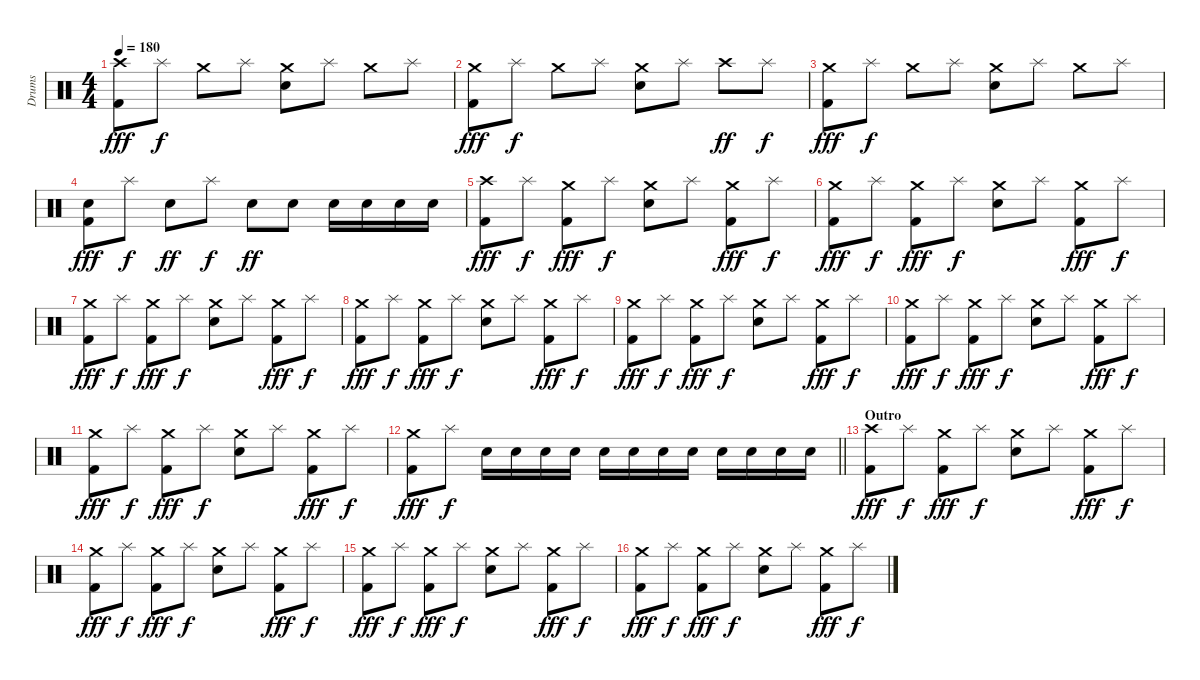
\track ("Drums" "Drums") {instrument percussion}
\staff {score}
\articulation defaults
\ts (4 4)
\tempo 180
\clef neutral
\ks c
("Crash high (hit)" "Kick (hit) 2").8{dy fff} "Splash (hit)".8{dy f} "Crash medium (hit)".8 "Splash (hit)".8 ("Crash medium (hit)" "Electric Snare (hit)").8 "Splash (hit)".8 "Crash medium (hit)".8 "Splash (hit)".8 |
("Crash medium (hit)" "Kick (hit) 2").8{dy fff} "Splash (hit)".8{dy f} "Crash medium (hit)".8 "Splash (hit)".8 ("Crash medium (hit)" "Electric Snare (hit)").8 "Splash (hit)".8 "Crash high (hit)".8{dy ff} "Splash (hit)".8{dy f} |
("Crash medium (hit)" "Kick (hit) 2").8{dy fff} "Splash (hit)".8{dy f} "Crash medium (hit)".8 "Splash (hit)".8 ("Crash medium (hit)" "Electric Snare (hit)").8 "Splash (hit)".8 "Crash medium (hit)".8 "Splash (hit)".8 |
("Electric Snare (hit)" "Kick (hit) 2").8{dy fff} "Splash (hit)".8{dy f} "Electric Snare (hit)".8{dy ff} "Splash (hit)".8{dy f} "Electric Snare (hit)".8{dy ff} "Electric Snare (hit)".8 "Electric Snare (hit)".16 "Electric Snare (hit)".16 "Electric Snare (hit)".16 "Electric Snare (hit)".16 |
("Crash high (hit)" "Kick (hit) 2").8{dy fff} "Splash (hit)".8{dy f} ("Crash medium (hit)" "Kick (hit) 2").8{dy fff} "Splash (hit)".8{dy f} ("Crash medium (hit)" "Electric Snare (hit)").8 "Splash (hit)".8 ("Crash medium (hit)" "Kick (hit) 2").8{dy fff} "Splash (hit)".8{dy f} |
("Crash medium (hit)" "Kick (hit) 2").8{dy fff} "Splash (hit)".8{dy f} ("Crash medium (hit)" "Kick (hit) 2").8{dy fff} "Splash (hit)".8{dy f} ("Crash medium (hit)" "Electric Snare (hit)").8 "Splash (hit)".8 ("Crash medium (hit)" "Kick (hit) 2").8{dy fff} "Splash (hit)".8{dy f} |
("Crash medium (hit)" "Kick (hit) 2").8{dy fff} "Splash (hit)".8{dy f} ("Crash medium (hit)" "Kick (hit) 2").8{dy fff} "Splash (hit)".8{dy f} ("Crash medium (hit)" "Electric Snare (hit)").8 "Splash (hit)".8 ("Crash medium (hit)" "Kick (hit) 2").8{dy fff} "Splash (hit)".8{dy f} |
("Crash medium (hit)" "Kick (hit) 2").8{dy fff} "Splash (hit)".8{dy f} ("Crash medium (hit)" "Kick (hit) 2").8{dy fff} "Splash (hit)".8{dy f} ("Crash medium (hit)" "Electric Snare (hit)").8 "Splash (hit)".8 ("Crash medium (hit)" "Kick (hit) 2").8{dy fff} "Splash (hit)".8{dy f} |
("Crash medium (hit)" "Kick (hit) 2").8{dy fff} "Splash (hit)".8{dy f} ("Crash medium (hit)" "Kick (hit) 2").8{dy fff} "Splash (hit)".8{dy f} ("Crash medium (hit)" "Electric Snare (hit)").8 "Splash (hit)".8 ("Crash medium (hit)" "Kick (hit) 2").8{dy fff} "Splash (hit)".8{dy f} |
("Crash medium (hit)" "Kick (hit) 2").8{dy fff} "Splash (hit)".8{dy f} ("Crash medium (hit)" "Kick (hit) 2").8{dy fff} "Splash (hit)".8{dy f} ("Crash medium (hit)" "Electric Snare (hit)").8 "Splash (hit)".8 ("Crash medium (hit)" "Kick (hit) 2").8{dy fff} "Splash (hit)".8{dy f} |
("Crash medium (hit)" "Kick (hit) 2").8{dy fff} "Splash (hit)".8{dy f} ("Crash medium (hit)" "Kick (hit) 2").8{dy fff} "Splash (hit)".8{dy f} ("Crash medium (hit)" "Electric Snare (hit)").8 "Splash (hit)".8 ("Crash medium (hit)" "Kick (hit) 2").8{dy fff} "Splash (hit)".8{dy f} |
\barLineRight lightlight
("Crash medium (hit)" "Kick (hit) 2").8{dy fff} "Splash (hit)".8{dy f} "Electric Snare (hit)".16 "Electric Snare (hit)".16 "Electric Snare (hit)".16 "Electric Snare (hit)".16 "Electric Snare (hit)".16 "Electric Snare (hit)".16 "Electric Snare (hit)".16 "Electric Snare (hit)".16 "Electric Snare (hit)".16 "Electric Snare (hit)".16 "Electric Snare (hit)".16 "Electric Snare (hit)".16 |
\section ("" "Outro")
("Crash high (hit)" "Kick (hit) 2").8{dy fff} "Splash (hit)".8{dy f} ("Crash medium (hit)" "Kick (hit) 2").8{dy fff} "Splash (hit)".8{dy f} ("Crash medium (hit)" "Electric Snare (hit)").8 "Splash (hit)".8 ("Crash medium (hit)" "Kick (hit) 2").8{dy fff} "Splash (hit)".8{dy f} |
("Crash medium (hit)" "Kick (hit) 2").8{dy fff} "Splash (hit)".8{dy f} ("Crash medium (hit)" "Kick (hit) 2").8{dy fff} "Splash (hit)".8{dy f} ("Crash medium (hit)" "Electric Snare (hit)").8 "Splash (hit)".8 ("Crash medium (hit)" "Kick (hit) 2").8{dy fff} "Splash (hit)".8{dy f} |
("Crash medium (hit)" "Kick (hit) 2").8{dy fff} "Splash (hit)".8{dy f} ("Crash medium (hit)" "Kick (hit) 2").8{dy fff} "Splash (hit)".8{dy f} ("Crash medium (hit)" "Electric Snare (hit)").8 "Splash (hit)".8 ("Crash medium (hit)" "Kick (hit) 2").8{dy fff} "Splash (hit)".8{dy f} |
("Crash medium (hit)" "Kick (hit) 2").8{dy fff} "Splash (hit)".8{dy f} ("Crash medium (hit)" "Kick (hit) 2").8{dy fff} "Splash (hit)".8{dy f} ("Crash medium (hit)" "Electric Snare (hit)").8 "Splash (hit)".8 ("Crash medium (hit)" "Kick (hit) 2").8{dy fff} "Splash (hit)".8{dy f}
